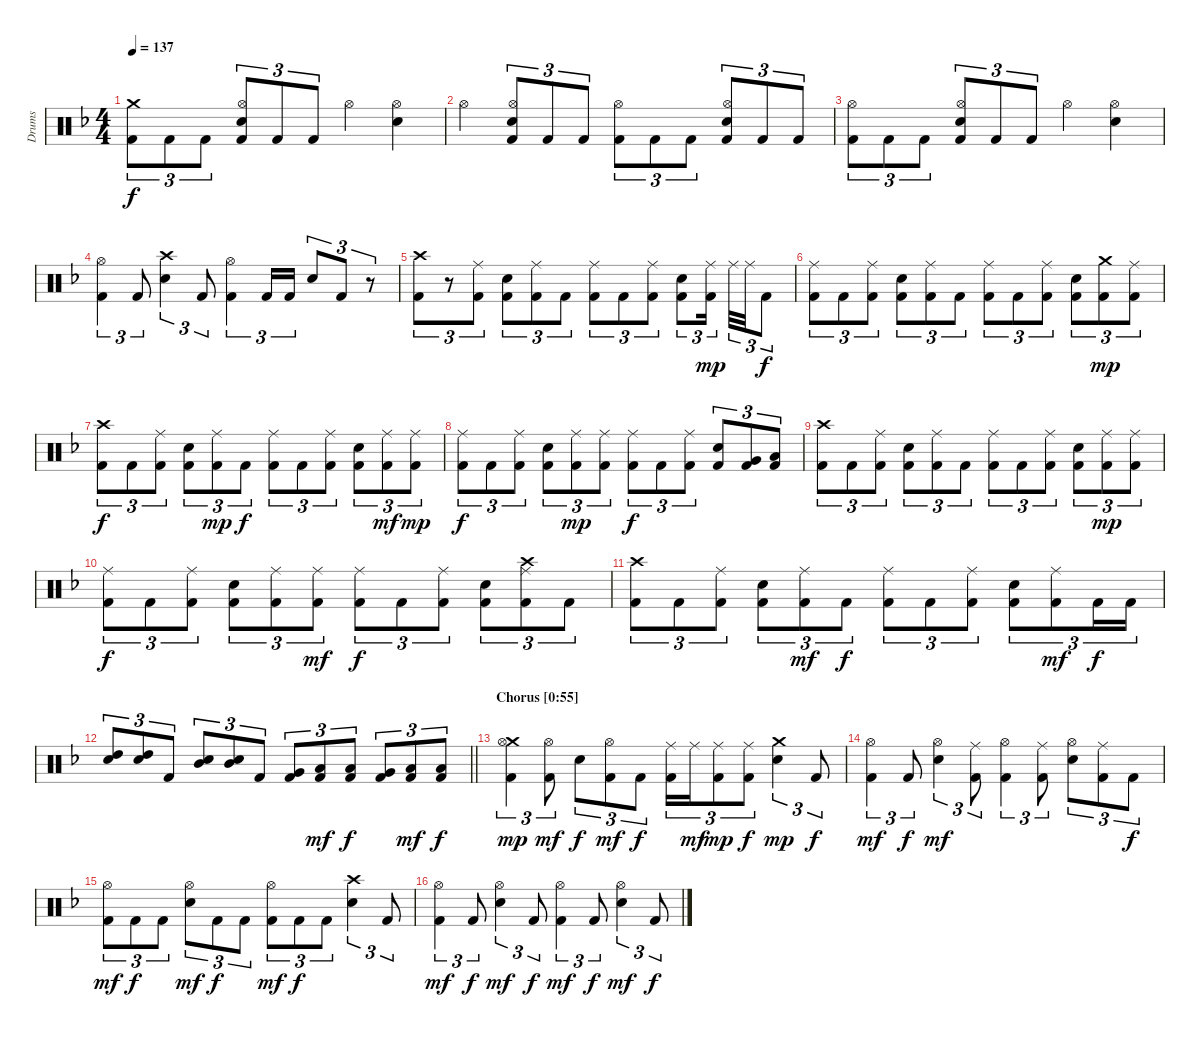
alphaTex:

\track ("Drums" "Drums") {instrument percussion}
\staff {score}
\articulation defaults
\ts (4 4)
\tempo 137
\clef neutral
\ks dminor
("Crash medium (hit)" "Kick (hit) 2").8{tu (3 2) dy f} "Kick (hit) 2".8{tu (3 2)} "Kick (hit) 2".8{tu (3 2)} ("Hi-Hat (open)" "Snare (hit) 2" "Kick (hit) 2").8{tu (3 2)} "Kick (hit) 2".8{tu (3 2)} "Kick (hit) 2".8{tu (3 2)} "Hi-Hat (open)".4 ("Hi-Hat (open)" "Snare (hit) 2").4 |
"Hi-Hat (open)".4 ("Hi-Hat (open)" "Snare (hit) 2" "Kick (hit) 2").8{tu (3 2)} "Kick (hit) 2".8{tu (3 2)} "Kick (hit) 2".8{tu (3 2)} ("Hi-Hat (open)" "Kick (hit) 2").8{tu (3 2)} "Kick (hit) 2".8{tu (3 2)} "Kick (hit) 2".8{tu (3 2)} ("Hi-Hat (open)" "Snare (hit) 2" "Kick (hit) 2").8{tu (3 2)} "Kick (hit) 2".8{tu (3 2)} "Kick (hit) 2".8{tu (3 2)} |
("Hi-Hat (open)" "Kick (hit) 2").8{tu (3 2)} "Kick (hit) 2".8{tu (3 2)} "Kick (hit) 2".8{tu (3 2)} ("Hi-Hat (open)" "Snare (hit) 2" "Kick (hit) 2").8{tu (3 2)} "Kick (hit) 2".8{tu (3 2)} "Kick (hit) 2".8{tu (3 2)} "Hi-Hat (open)".4 ("Hi-Hat (open)" "Snare (hit) 2").4 |
("Hi-Hat (open)" "Kick (hit) 2").4{tu (3 2)} "Kick (hit) 2".8{tu (3 2)} ("Crash high (hit)" "Snare (hit) 2").4{tu (3 2)} "Kick (hit) 2".8{tu (3 2)} ("Hi-Hat (open)" "Kick (hit) 2").4{tu (3 2)} "Kick (hit) 2".16{tu (3 2)} "Kick (hit) 2".16{tu (3 2)} "Snare (hit) 2".8{tu (3 2)} "Kick (hit) 2".8{tu (3 2)} r.8{tu (3 2)} |
("Crash high (hit)" "Kick (hit) 2").8{tu (3 2)} r.8{tu (3 2)} ("Ride (middle)" "Kick (hit) 2").8{tu (3 2)} ("Snare (hit) 2" "Kick (hit) 2").8{tu (3 2)} ("Ride (middle)" "Kick (hit) 2").8{tu (3 2)} "Kick (hit) 2".8{tu (3 2)} ("Ride (middle)" "Kick (hit) 2").8{tu (3 2)} "Kick (hit) 2".8{tu (3 2)} ("Ride (middle)" "Kick (hit) 2").8{tu (3 2)} ("Snare (hit) 2" "Kick (hit) 2").8{tu (3 2)} ("Ride (middle)" "Kick (hit) 2").16{tu (3 2) dy mp beam splitsecondary} "Ride (middle)".32{tu (3 2)} "Ride (middle)".32{tu (3 2)} "Kick (hit) 2".8{tu (3 2) dy f} |
("Ride (middle)" "Kick (hit) 2").8{tu (3 2)} "Kick (hit) 2".8{tu (3 2)} ("Ride (middle)" "Kick (hit) 2").8{tu (3 2)} ("Snare (hit) 2" "Kick (hit) 2").8{tu (3 2)} ("Ride (middle)" "Kick (hit) 2").8{tu (3 2)} "Kick (hit) 2".8{tu (3 2)} ("Ride (middle)" "Kick (hit) 2").8{tu (3 2)} "Kick (hit) 2".8{tu (3 2)} ("Ride (middle)" "Kick (hit) 2").8{tu (3 2)} ("Snare (hit) 2" "Kick (hit) 2").8{tu (3 2)} ("Crash medium (hit)" "Kick (hit) 2").8{tu (3 2) dy mp} ("Ride (middle)" "Kick (hit) 2").8{tu (3 2)} |
("Crash high (hit)" "Kick (hit) 2").8{tu (3 2) dy f} "Kick (hit) 2".8{tu (3 2)} ("Ride (middle)" "Kick (hit) 2").8{tu (3 2)} ("Snare (hit) 2" "Kick (hit) 2").8{tu (3 2)} ("Ride (middle)" "Kick (hit) 2").8{tu (3 2) dy mp} "Kick (hit) 2".8{tu (3 2) dy f} ("Ride (middle)" "Kick (hit) 2").8{tu (3 2)} "Kick (hit) 2".8{tu (3 2)} ("Ride (middle)" "Kick (hit) 2").8{tu (3 2)} ("Snare (hit) 2" "Kick (hit) 2").8{tu (3 2)} ("Ride (middle)" "Kick (hit) 2").8{tu (3 2) dy mf} ("Ride (middle)" "Kick (hit) 2").8{tu (3 2) dy mp} |
("Ride (middle)" "Kick (hit) 2").8{tu (3 2) dy f} "Kick (hit) 2".8{tu (3 2)} ("Ride (middle)" "Kick (hit) 2").8{tu (3 2)} ("Snare (hit) 2" "Kick (hit) 2").8{tu (3 2)} ("Ride (middle)" "Kick (hit) 2").8{tu (3 2) dy mp} ("Ride (middle)" "Kick (hit) 2").8{tu (3 2)} ("Ride (middle)" "Kick (hit) 2").8{tu (3 2) dy f} "Kick (hit) 2".8{tu (3 2)} ("Ride (middle)" "Kick (hit) 2").8{tu (3 2)} ("Snare (hit) 2" "Kick (hit) 2").8{tu (3 2)} ("Very Low Tom (hit)" "Kick (hit) 2").8{tu (3 2)} ("Low Floor Tom (hit)" "Kick (hit) 2").8{tu (3 2)} |
("Crash high (hit)" "Kick (hit) 2").8{tu (3 2)} "Kick (hit) 2".8{tu (3 2)} ("Ride (middle)" "Kick (hit) 2").8{tu (3 2)} ("Snare (hit) 2" "Kick (hit) 2").8{tu (3 2)} ("Ride (middle)" "Kick (hit) 2").8{tu (3 2)} "Kick (hit) 2".8{tu (3 2)} ("Ride (middle)" "Kick (hit) 2").8{tu (3 2)} "Kick (hit) 2".8{tu (3 2)} ("Ride (middle)" "Kick (hit) 2").8{tu (3 2)} ("Snare (hit) 2" "Kick (hit) 2").8{tu (3 2)} ("Ride (middle)" "Kick (hit) 2").8{tu (3 2) dy mp} ("Ride (middle)" "Kick (hit) 2").8{tu (3 2)} |
("Ride (middle)" "Kick (hit) 2").8{tu (3 2) dy f} "Kick (hit) 2".8{tu (3 2)} ("Ride (middle)" "Kick (hit) 2").8{tu (3 2)} ("Snare (hit) 2" "Kick (hit) 2").8{tu (3 2)} ("Ride (middle)" "Kick (hit) 2").8{tu (3 2)} ("Ride (middle)" "Kick (hit) 2").8{tu (3 2) dy mf} ("Ride (middle)" "Kick (hit) 2").8{tu (3 2) dy f} "Kick (hit) 2".8{tu (3 2)} ("Ride (middle)" "Kick (hit) 2").8{tu (3 2)} ("Snare (hit) 2" "Kick (hit) 2").8{tu (3 2)} ("Crash high (hit)" "Ride (middle)" "Kick (hit) 2").8{tu (3 2)} "Kick (hit) 2".8{tu (3 2)} |
("Crash high (hit)" "Kick (hit) 2").8{tu (3 2)} "Kick (hit) 2".8{tu (3 2)} ("Ride (middle)" "Kick (hit) 2").8{tu (3 2)} ("Snare (hit) 2" "Kick (hit) 2").8{tu (3 2)} ("Ride (middle)" "Kick (hit) 2").8{tu (3 2) dy mf} "Kick (hit) 2".8{tu (3 2) dy f} ("Ride (middle)" "Kick (hit) 2").8{tu (3 2)} "Kick (hit) 2".8{tu (3 2)} ("Ride (middle)" "Kick (hit) 2").8{tu (3 2)} ("Snare (hit) 2" "Kick (hit) 2").8{tu (3 2)} ("Ride (middle)" "Kick (hit) 2").8{tu (3 2) dy mf} "Kick (hit) 2".16{tu (3 2) dy f} "Kick (hit) 2".16{tu (3 2)} |
\barLineRight lightlight
("High Tom (hit)" "Snare (hit) 2").8{tu (3 2)} ("High Tom (hit)" "Snare (hit) 2").8{tu (3 2)} "Kick (hit) 2".8{tu (3 2)} ("Mid Tom (hit)" "Snare (hit) 2").8{tu (3 2)} ("Mid Tom (hit)" "Snare (hit) 2").8{tu (3 2)} "Kick (hit) 2".8{tu (3 2)} ("Very Low Tom (hit)" "Kick (hit) 2").8{tu (3 2)} ("Low Floor Tom (hit)" "Kick (hit) 2").8{tu (3 2) dy mf} ("Low Floor Tom (hit)" "Kick (hit) 2").8{tu (3 2) dy f} ("Very Low Tom (hit)" "Kick (hit) 2").8{tu (3 2)} ("Low Floor Tom (hit)" "Kick (hit) 2").8{tu (3 2) dy mf} ("Low Floor Tom (hit)" "Kick (hit) 2").8{tu (3 2) dy f} |
\section ("" "Chorus [0:55]")
("Crash medium (hit)" "Hi-Hat (open)" "Kick (hit) 2").4{tu (3 2) dy mp} ("Hi-Hat (open)" "Kick (hit) 2").8{tu (3 2) dy mf} "Snare (hit) 2".8{tu (3 2) dy f} ("Hi-Hat (open)" "Kick (hit) 2").8{tu (3 2) dy mf} "Kick (hit) 2".8{tu (3 2) dy f} ("Ride (middle)" "Kick (hit) 2").16{tu (3 2)} "Ride (middle)".16{tu (3 2) dy mf} ("Ride (middle)" "Kick (hit) 2").8{tu (3 2) dy mp} ("Ride (middle)" "Kick (hit) 2").8{tu (3 2) dy f} ("Crash medium (hit)" "Snare (hit) 2").4{tu (3 2) dy mp} "Kick (hit) 2".8{tu (3 2) dy f} |
("Hi-Hat (open)" "Kick (hit) 2").4{tu (3 2) dy mf} "Kick (hit) 2".8{tu (3 2) dy f} ("Hi-Hat (open)" "Snare (hit) 2").4{tu (3 2) dy mf} ("Ride (middle)" "Kick (hit) 2").8{tu (3 2)} ("Hi-Hat (open)" "Kick (hit) 2").4{tu (3 2)} ("Ride (middle)" "Kick (hit) 2").8{tu (3 2)} ("Hi-Hat (open)" "Snare (hit) 2").8{tu (3 2)} ("Ride (middle)" "Kick (hit) 2").8{tu (3 2)} "Kick (hit) 2".8{tu (3 2) dy f} |
("Hi-Hat (open)" "Kick (hit) 2").8{tu (3 2) dy mf} "Kick (hit) 2".8{tu (3 2) dy f} "Kick (hit) 2".8{tu (3 2)} ("Hi-Hat (open)" "Snare (hit) 2").8{tu (3 2) dy mf} "Kick (hit) 2".8{tu (3 2) dy f} "Kick (hit) 2".8{tu (3 2)} ("Hi-Hat (open)" "Kick (hit) 2").8{tu (3 2) dy mf} "Kick (hit) 2".8{tu (3 2) dy f} "Kick (hit) 2".8{tu (3 2)} ("Crash high (hit)" "Snare (hit) 2").4{tu (3 2)} "Kick (hit) 2".8{tu (3 2)} |
("Hi-Hat (open)" "Kick (hit) 2").4{tu (3 2) dy mf} "Kick (hit) 2".8{tu (3 2) dy f} ("Hi-Hat (open)" "Snare (hit) 2").4{tu (3 2) dy mf} "Kick (hit) 2".8{tu (3 2) dy f} ("Hi-Hat (open)" "Kick (hit) 2").4{tu (3 2) dy mf} "Kick (hit) 2".8{tu (3 2) dy f} ("Hi-Hat (open)" "Snare (hit) 2").4{tu (3 2) dy mf} "Kick (hit) 2".8{tu (3 2) dy f}
